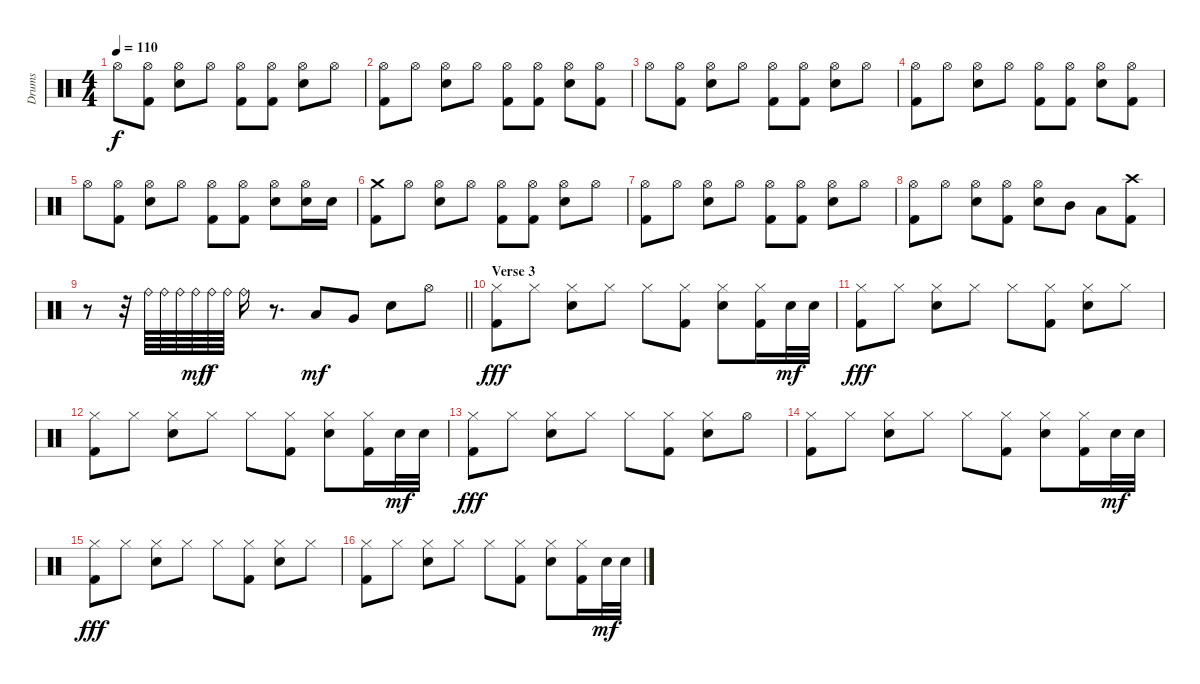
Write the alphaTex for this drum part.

\track ("Drums" "Drums") {instrument percussion}
\staff {score}
\articulation defaults
\ts (4 4)
\tempo 110
\clef neutral
\ks c "Hi-Hat (open)".8{dy f}
("Hi-Hat (open)" "Kick (hit) 2").8 ("Hi-Hat (open)" "Electric Snare (hit)").8 "Hi-Hat (open)".8 ("Hi-Hat (open)" "Kick (hit) 2").8 ("Hi-Hat (open)" "Kick (hit) 2").8 ("Hi-Hat (open)" "Electric Snare (hit)").8 "Hi-Hat (open)".8 |
("Hi-Hat (open)" "Kick (hit) 2").8 "Hi-Hat (open)".8 ("Hi-Hat (open)" "Electric Snare (hit)").8 "Hi-Hat (open)".8 ("Hi-Hat (open)" "Kick (hit) 2").8 ("Hi-Hat (open)" "Kick (hit) 2").8 ("Hi-Hat (open)" "Electric Snare (hit)").8 ("Hi-Hat (open)" "Kick (hit) 2").8 |
"Hi-Hat (open)".8 ("Hi-Hat (open)" "Kick (hit) 2").8 ("Hi-Hat (open)" "Electric Snare (hit)").8 "Hi-Hat (open)".8 ("Hi-Hat (open)" "Kick (hit) 2").8 ("Hi-Hat (open)" "Kick (hit) 2").8 ("Hi-Hat (open)" "Electric Snare (hit)").8 "Hi-Hat (open)".8 |
("Hi-Hat (open)" "Kick (hit) 2").8 "Hi-Hat (open)".8 ("Hi-Hat (open)" "Electric Snare (hit)").8 "Hi-Hat (open)".8 ("Hi-Hat (open)" "Kick (hit) 2").8 ("Hi-Hat (open)" "Kick (hit) 2").8 ("Hi-Hat (open)" "Electric Snare (hit)").8 ("Hi-Hat (open)" "Kick (hit) 2").8 |
"Hi-Hat (open)".8 ("Hi-Hat (open)" "Kick (hit) 2").8 ("Hi-Hat (open)" "Electric Snare (hit)").8 "Hi-Hat (open)".8 ("Hi-Hat (open)" "Kick (hit) 2").8 ("Hi-Hat (open)" "Kick (hit) 2").8 ("Hi-Hat (open)" "Electric Snare (hit)").8 ("Hi-Hat (open)" "Electric Snare (hit)").16 "Electric Snare (hit)".16 |
("Crash medium (hit)" "Kick (hit) 2").8 "Hi-Hat (open)".8 ("Hi-Hat (open)" "Electric Snare (hit)").8 "Hi-Hat (open)".8 ("Hi-Hat (open)" "Kick (hit) 2").8 ("Hi-Hat (open)" "Kick (hit) 2").8 ("Hi-Hat (open)" "Electric Snare (hit)").8 "Hi-Hat (open)".8 |
("Hi-Hat (open)" "Kick (hit) 2").8 "Hi-Hat (open)".8 ("Hi-Hat (open)" "Electric Snare (hit)").8 "Hi-Hat (open)".8 ("Hi-Hat (open)" "Kick (hit) 2").8 ("Hi-Hat (open)" "Kick (hit) 2").8 ("Hi-Hat (open)" "Electric Snare (hit)").8 "Hi-Hat (open)".8 |
("Hi-Hat (open)" "Kick (hit) 2").8 "Hi-Hat (open)".8 ("Hi-Hat (open)" "Electric Snare (hit)").8 ("Hi-Hat (open)" "Kick (hit) 2").8 ("Hi-Hat (open)" "Electric Snare (hit)").8 "Mid Tom (hit)".8 "Low Tom (hit)".8 ("Crash high (hit)" "Kick (hit) 2").8 |
\barLineRight lightlight
r.8 r.32 "Ride (bell)".64 "Ride (bell)".64 "Ride (bell)".64 "Ride (bell)".64{dy mf} "Ride (bell)".64{dy f} "Ride (bell)".64 "Ride (bell)".16 r.8{d} "Low Tom (hit)".8{dy mf} "Very Low Tom (hit)".8 "Electric Snare (hit)".8 "Hi-Hat (open)".8 |
\section ("" "Verse 3")
("Hi-Hat (closed)" "Kick (hit) 2").8{dy fff} "Hi-Hat (closed)".8 ("Hi-Hat (closed)" "Electric Snare (hit)").8 "Hi-Hat (closed)".8 "Hi-Hat (closed)".8 ("Hi-Hat (closed)" "Kick (hit) 2").8 ("Hi-Hat (closed)" "Electric Snare (hit)").8 ("Hi-Hat (closed)" "Kick (hit) 2").16 "Electric Snare (hit)".32{dy mf} "Electric Snare (hit)".32 |
("Hi-Hat (closed)" "Kick (hit) 2").8{dy fff} "Hi-Hat (closed)".8 ("Hi-Hat (closed)" "Electric Snare (hit)").8 "Hi-Hat (closed)".8 "Hi-Hat (closed)".8 ("Hi-Hat (closed)" "Kick (hit) 2").8 ("Hi-Hat (closed)" "Electric Snare (hit)").8 "Hi-Hat (closed)".8 |
("Hi-Hat (closed)" "Kick (hit) 2").8 "Hi-Hat (closed)".8 ("Hi-Hat (closed)" "Electric Snare (hit)").8 "Hi-Hat (closed)".8 "Hi-Hat (closed)".8 ("Hi-Hat (closed)" "Kick (hit) 2").8 ("Hi-Hat (closed)" "Electric Snare (hit)").8 ("Hi-Hat (closed)" "Kick (hit) 2").16 "Electric Snare (hit)".32{dy mf} "Electric Snare (hit)".32 |
("Hi-Hat (closed)" "Kick (hit) 2").8{dy fff} "Hi-Hat (closed)".8 ("Hi-Hat (closed)" "Electric Snare (hit)").8 "Hi-Hat (closed)".8 "Hi-Hat (closed)".8 ("Hi-Hat (closed)" "Kick (hit) 2").8 ("Hi-Hat (closed)" "Electric Snare (hit)").8 "Hi-Hat (open)".8 |
("Hi-Hat (closed)" "Kick (hit) 2").8 "Hi-Hat (closed)".8 ("Hi-Hat (closed)" "Electric Snare (hit)").8 "Hi-Hat (closed)".8 "Hi-Hat (closed)".8 ("Hi-Hat (closed)" "Kick (hit) 2").8 ("Hi-Hat (closed)" "Electric Snare (hit)").8 ("Hi-Hat (closed)" "Kick (hit) 2").16 "Electric Snare (hit)".32{dy mf} "Electric Snare (hit)".32 |
("Hi-Hat (closed)" "Kick (hit) 2").8{dy fff} "Hi-Hat (closed)".8 ("Hi-Hat (closed)" "Electric Snare (hit)").8 "Hi-Hat (closed)".8 "Hi-Hat (closed)".8 ("Hi-Hat (closed)" "Kick (hit) 2").8 ("Hi-Hat (closed)" "Electric Snare (hit)").8 "Hi-Hat (closed)".8 |
("Hi-Hat (closed)" "Kick (hit) 2").8 "Hi-Hat (closed)".8 ("Hi-Hat (closed)" "Electric Snare (hit)").8 "Hi-Hat (closed)".8 "Hi-Hat (closed)".8 ("Hi-Hat (closed)" "Kick (hit) 2").8 ("Hi-Hat (closed)" "Electric Snare (hit)").8 ("Hi-Hat (closed)" "Kick (hit) 2").16 "Electric Snare (hit)".32{dy mf} "Electric Snare (hit)".32
